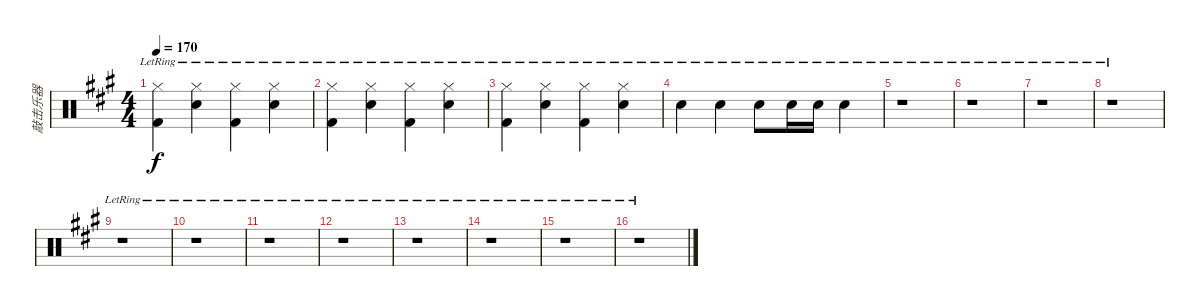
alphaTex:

\track ("敲击乐器" "敲击乐器") {instrument percussion}
\staff {score}
\articulation defaults
\ts (4 4)
\tempo 170
\clef neutral
\ks a
("Hi-Hat (closed)"{lr} "Kick (hit) 2"{lr}).4{dy f} ("Hi-Hat (closed)"{lr} "Snare (hit) 2"{lr}).4 ("Hi-Hat (closed)"{lr} "Kick (hit) 2"{lr}).4 ("Hi-Hat (closed)"{lr} "Snare (hit) 2"{lr}).4 |
("Hi-Hat (closed)"{lr} "Kick (hit) 2"{lr}).4 ("Hi-Hat (closed)"{lr} "Snare (hit) 2"{lr}).4 ("Hi-Hat (closed)"{lr} "Kick (hit) 2"{lr}).4 ("Hi-Hat (closed)"{lr} "Snare (hit) 2"{lr}).4 |
("Hi-Hat (closed)"{lr} "Kick (hit) 2"{lr}).4 ("Hi-Hat (closed)"{lr} "Snare (hit) 2"{lr}).4 ("Hi-Hat (closed)"{lr} "Kick (hit) 2"{lr}).4 ("Hi-Hat (closed)"{lr} "Snare (hit) 2"{lr}).4 |
"Snare (hit) 2"{lr}.4 "Snare (hit) 2"{lr}.4 "Snare (hit) 2"{lr}.8 "Snare (hit) 2"{lr}.16 "Snare (hit) 2"{lr}.16 "Snare (hit) 2"{lr}.4 |
r.1 |
r.1 |
r.1 |
r.1 |
r.1 |
r.1 |
r.1 |
r.1 |
r.1 |
r.1 |
r.1 |
r.1
